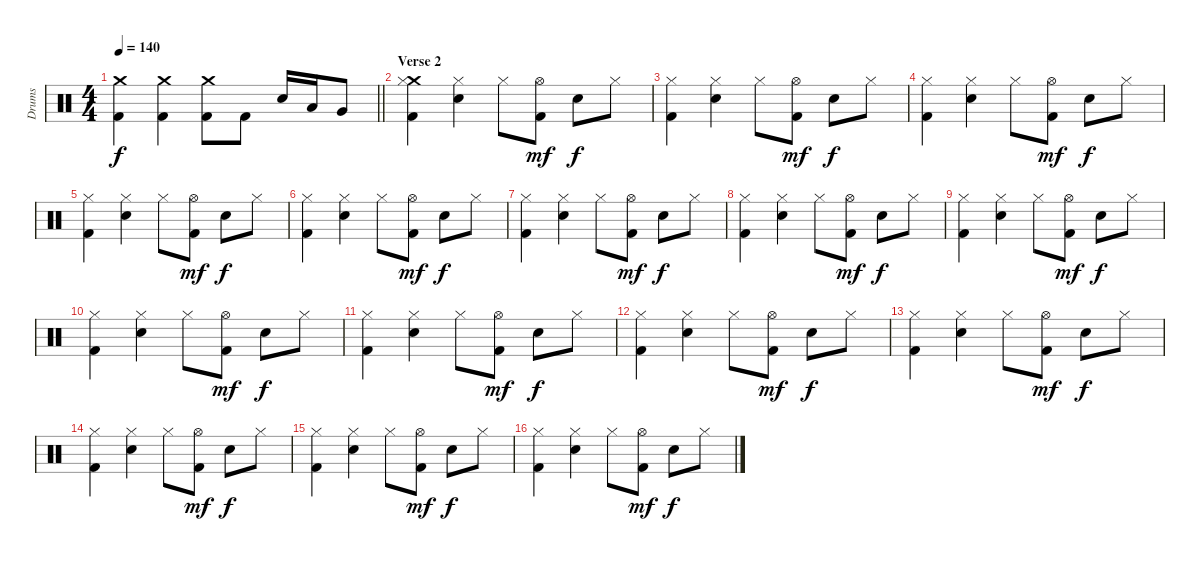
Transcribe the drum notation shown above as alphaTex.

\track ("Drums" "Drums") {instrument percussion}
\staff {score}
\articulation defaults
\ts (4 4)
\tempo 140
\clef neutral
\barLineRight lightlight
\ks c
("Crash medium (hit)" "Kick (hit) 2").4{dy f} ("Crash medium (hit)" "Kick (hit) 2").4 ("Crash medium (hit)" "Kick (hit) 2").8 "Kick (hit) 2".8 "Snare (hit) 2".16 "Low Tom (hit)".16 "Very Low Tom (hit)".8 |
\section ("" "Verse 2")
("Crash medium (hit)" "Hi-Hat (closed)" "Kick (hit) 2").4 ("Hi-Hat (closed)" "Snare (hit) 2").4 "Hi-Hat (closed)".8 ("Hi-Hat (open)" "Kick (hit) 2").8{dy mf} "Snare (hit) 2".8{dy f} "Hi-Hat (closed)".8 |
("Hi-Hat (closed)" "Kick (hit) 2").4 ("Hi-Hat (closed)" "Snare (hit) 2").4 "Hi-Hat (closed)".8 ("Hi-Hat (open)" "Kick (hit) 2").8{dy mf} "Snare (hit) 2".8{dy f} "Hi-Hat (closed)".8 |
("Hi-Hat (closed)" "Kick (hit) 2").4 ("Hi-Hat (closed)" "Snare (hit) 2").4 "Hi-Hat (closed)".8 ("Hi-Hat (open)" "Kick (hit) 2").8{dy mf} "Snare (hit) 2".8{dy f} "Hi-Hat (closed)".8 |
("Hi-Hat (closed)" "Kick (hit) 2").4 ("Hi-Hat (closed)" "Snare (hit) 2").4 "Hi-Hat (closed)".8 ("Hi-Hat (open)" "Kick (hit) 2").8{dy mf} "Snare (hit) 2".8{dy f} "Hi-Hat (closed)".8 |
("Hi-Hat (closed)" "Kick (hit) 2").4 ("Hi-Hat (closed)" "Snare (hit) 2").4 "Hi-Hat (closed)".8 ("Hi-Hat (open)" "Kick (hit) 2").8{dy mf} "Snare (hit) 2".8{dy f} "Hi-Hat (closed)".8 |
("Hi-Hat (closed)" "Kick (hit) 2").4 ("Hi-Hat (closed)" "Snare (hit) 2").4 "Hi-Hat (closed)".8 ("Hi-Hat (open)" "Kick (hit) 2").8{dy mf} "Snare (hit) 2".8{dy f} "Hi-Hat (closed)".8 |
("Hi-Hat (closed)" "Kick (hit) 2").4 ("Hi-Hat (closed)" "Snare (hit) 2").4 "Hi-Hat (closed)".8 ("Hi-Hat (open)" "Kick (hit) 2").8{dy mf} "Snare (hit) 2".8{dy f} "Hi-Hat (closed)".8 |
("Hi-Hat (closed)" "Kick (hit) 2").4 ("Hi-Hat (closed)" "Snare (hit) 2").4 "Hi-Hat (closed)".8 ("Hi-Hat (open)" "Kick (hit) 2").8{dy mf} "Snare (hit) 2".8{dy f} "Hi-Hat (closed)".8 |
("Hi-Hat (closed)" "Kick (hit) 2").4 ("Hi-Hat (closed)" "Snare (hit) 2").4 "Hi-Hat (closed)".8 ("Hi-Hat (open)" "Kick (hit) 2").8{dy mf} "Snare (hit) 2".8{dy f} "Hi-Hat (closed)".8 |
("Hi-Hat (closed)" "Kick (hit) 2").4 ("Hi-Hat (closed)" "Snare (hit) 2").4 "Hi-Hat (closed)".8 ("Hi-Hat (open)" "Kick (hit) 2").8{dy mf} "Snare (hit) 2".8{dy f} "Hi-Hat (closed)".8 |
("Hi-Hat (closed)" "Kick (hit) 2").4 ("Hi-Hat (closed)" "Snare (hit) 2").4 "Hi-Hat (closed)".8 ("Hi-Hat (open)" "Kick (hit) 2").8{dy mf} "Snare (hit) 2".8{dy f} "Hi-Hat (closed)".8 |
("Hi-Hat (closed)" "Kick (hit) 2").4 ("Hi-Hat (closed)" "Snare (hit) 2").4 "Hi-Hat (closed)".8 ("Hi-Hat (open)" "Kick (hit) 2").8{dy mf} "Snare (hit) 2".8{dy f} "Hi-Hat (closed)".8 |
("Hi-Hat (closed)" "Kick (hit) 2").4 ("Hi-Hat (closed)" "Snare (hit) 2").4 "Hi-Hat (closed)".8 ("Hi-Hat (open)" "Kick (hit) 2").8{dy mf} "Snare (hit) 2".8{dy f} "Hi-Hat (closed)".8 |
("Hi-Hat (closed)" "Kick (hit) 2").4 ("Hi-Hat (closed)" "Snare (hit) 2").4 "Hi-Hat (closed)".8 ("Hi-Hat (open)" "Kick (hit) 2").8{dy mf} "Snare (hit) 2".8{dy f} "Hi-Hat (closed)".8 |
("Hi-Hat (closed)" "Kick (hit) 2").4 ("Hi-Hat (closed)" "Snare (hit) 2").4 "Hi-Hat (closed)".8 ("Hi-Hat (open)" "Kick (hit) 2").8{dy mf} "Snare (hit) 2".8{dy f} "Hi-Hat (closed)".8
